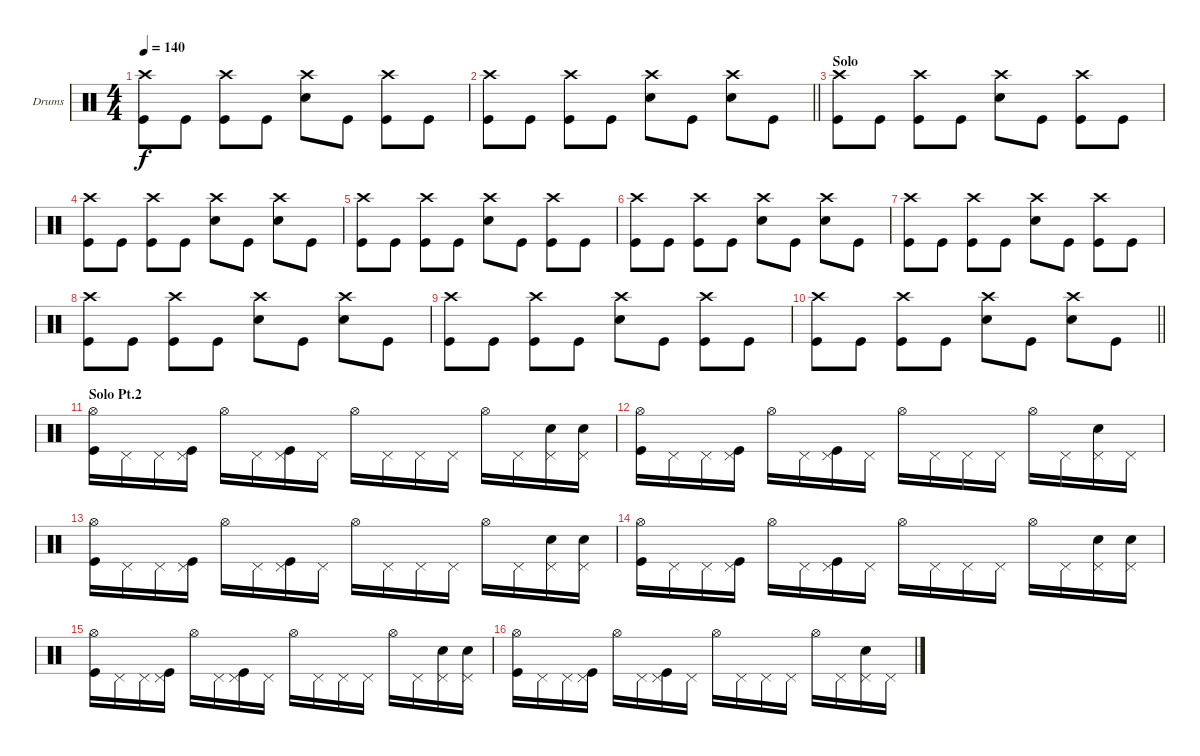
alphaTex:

\bracketExtendMode groupsimilarinstruments
\firstSystemTrackNameOrientation horizontal
\otherSystemsTrackNameOrientation horizontal
\track ("Dave McClain" "Drums") {instrument percussion}
\staff {score}
\articulation defaults
\ts (4 4)
\tempo 140
\clef neutral
\ks c
("Crash high (hit)" "Kick (hit)").8{dy f} "Kick (hit)".8 ("Crash high (hit)" "Kick (hit)").8 "Kick (hit)".8 ("Crash high (hit)" "Snare (hit) 2").8 "Kick (hit)".8 ("Crash high (hit)" "Kick (hit)").8 "Kick (hit)".8 |
\barLineRight lightlight
("Crash high (hit)" "Kick (hit)").8 "Kick (hit)".8 ("Crash high (hit)" "Kick (hit)").8 "Kick (hit)".8 ("Crash high (hit)" "Snare (hit) 2").8 "Kick (hit)".8 ("Crash high (hit)" "Snare (hit) 2").8 "Kick (hit)".8 |
\section ("" "Solo")
("Crash high (hit)" "Kick (hit)").8 "Kick (hit)".8 ("Crash high (hit)" "Kick (hit)").8 "Kick (hit)".8 ("Crash high (hit)" "Snare (hit) 2").8 "Kick (hit)".8 ("Crash high (hit)" "Kick (hit)").8 "Kick (hit)".8 |
("Crash high (hit)" "Kick (hit)").8 "Kick (hit)".8 ("Crash high (hit)" "Kick (hit)").8 "Kick (hit)".8 ("Crash high (hit)" "Snare (hit) 2").8 "Kick (hit)".8 ("Crash high (hit)" "Snare (hit) 2").8 "Kick (hit)".8 |
("Crash high (hit)" "Kick (hit)").8 "Kick (hit)".8 ("Crash high (hit)" "Kick (hit)").8 "Kick (hit)".8 ("Crash high (hit)" "Snare (hit) 2").8 "Kick (hit)".8 ("Crash high (hit)" "Kick (hit)").8 "Kick (hit)".8 |
("Crash high (hit)" "Kick (hit)").8 "Kick (hit)".8 ("Crash high (hit)" "Kick (hit)").8 "Kick (hit)".8 ("Crash high (hit)" "Snare (hit) 2").8 "Kick (hit)".8 ("Crash high (hit)" "Snare (hit) 2").8 "Kick (hit)".8 |
("Crash high (hit)" "Kick (hit)").8 "Kick (hit)".8 ("Crash high (hit)" "Kick (hit)").8 "Kick (hit)".8 ("Crash high (hit)" "Snare (hit) 2").8 "Kick (hit)".8 ("Crash high (hit)" "Kick (hit)").8 "Kick (hit)".8 |
("Crash high (hit)" "Kick (hit)").8 "Kick (hit)".8 ("Crash high (hit)" "Kick (hit)").8 "Kick (hit)".8 ("Crash high (hit)" "Snare (hit) 2").8 "Kick (hit)".8 ("Crash high (hit)" "Snare (hit) 2").8 "Kick (hit)".8 |
("Crash high (hit)" "Kick (hit)").8 "Kick (hit)".8 ("Crash high (hit)" "Kick (hit)").8 "Kick (hit)".8 ("Crash high (hit)" "Snare (hit) 2").8 "Kick (hit)".8 ("Crash high (hit)" "Kick (hit)").8 "Kick (hit)".8 |
\barLineRight lightlight
("Crash high (hit)" "Kick (hit)").8 "Kick (hit)".8 ("Crash high (hit)" "Kick (hit)").8 "Kick (hit)".8 ("Crash high (hit)" "Snare (hit) 2").8 "Kick (hit)".8 ("Crash high (hit)" "Snare (hit) 2").8 "Kick (hit)".8 |
\section ("" "Solo Pt.2")
("Hi-Hat (open)" "Kick (hit)").16 "Pedal Hi-Hat (hit)".16 "Pedal Hi-Hat (hit)".16 ("Pedal Hi-Hat (hit)" "Kick (hit)").16 "Hi-Hat (open)".16 "Pedal Hi-Hat (hit)".16 ("Pedal Hi-Hat (hit)" "Kick (hit)").16 "Pedal Hi-Hat (hit)".16 "Hi-Hat (open)".16 "Pedal Hi-Hat (hit)".16 "Pedal Hi-Hat (hit)".16 "Pedal Hi-Hat (hit)".16 "Hi-Hat (open)".16 "Pedal Hi-Hat (hit)".16 ("Pedal Hi-Hat (hit)" "Snare (hit) 2").16 ("Pedal Hi-Hat (hit)" "Snare (hit) 2").16 |
("Hi-Hat (open)" "Kick (hit)").16 "Pedal Hi-Hat (hit)".16 "Pedal Hi-Hat (hit)".16 ("Pedal Hi-Hat (hit)" "Kick (hit)").16 "Hi-Hat (open)".16 "Pedal Hi-Hat (hit)".16 ("Pedal Hi-Hat (hit)" "Kick (hit)").16 "Pedal Hi-Hat (hit)".16 "Hi-Hat (open)".16 "Pedal Hi-Hat (hit)".16 "Pedal Hi-Hat (hit)".16 "Pedal Hi-Hat (hit)".16 "Hi-Hat (open)".16 "Pedal Hi-Hat (hit)".16 ("Pedal Hi-Hat (hit)" "Snare (hit) 2").16 "Pedal Hi-Hat (hit)".16 |
("Hi-Hat (open)" "Kick (hit)").16 "Pedal Hi-Hat (hit)".16 "Pedal Hi-Hat (hit)".16 ("Pedal Hi-Hat (hit)" "Kick (hit)").16 "Hi-Hat (open)".16 "Pedal Hi-Hat (hit)".16 ("Pedal Hi-Hat (hit)" "Kick (hit)").16 "Pedal Hi-Hat (hit)".16 "Hi-Hat (open)".16 "Pedal Hi-Hat (hit)".16 "Pedal Hi-Hat (hit)".16 "Pedal Hi-Hat (hit)".16 "Hi-Hat (open)".16 "Pedal Hi-Hat (hit)".16 ("Pedal Hi-Hat (hit)" "Snare (hit) 2").16 ("Pedal Hi-Hat (hit)" "Snare (hit) 2").16 |
("Hi-Hat (open)" "Kick (hit)").16 "Pedal Hi-Hat (hit)".16 "Pedal Hi-Hat (hit)".16 ("Pedal Hi-Hat (hit)" "Kick (hit)").16 "Hi-Hat (open)".16 "Pedal Hi-Hat (hit)".16 ("Pedal Hi-Hat (hit)" "Kick (hit)").16 "Pedal Hi-Hat (hit)".16 "Hi-Hat (open)".16 "Pedal Hi-Hat (hit)".16 "Pedal Hi-Hat (hit)".16 "Pedal Hi-Hat (hit)".16 "Hi-Hat (open)".16 "Pedal Hi-Hat (hit)".16 ("Pedal Hi-Hat (hit)" "Snare (hit) 2").16 ("Pedal Hi-Hat (hit)" "Snare (hit) 2").16 |
("Hi-Hat (open)" "Kick (hit)").16 "Pedal Hi-Hat (hit)".16 "Pedal Hi-Hat (hit)".16 ("Pedal Hi-Hat (hit)" "Kick (hit)").16 "Hi-Hat (open)".16 "Pedal Hi-Hat (hit)".16 ("Pedal Hi-Hat (hit)" "Kick (hit)").16 "Pedal Hi-Hat (hit)".16 "Hi-Hat (open)".16 "Pedal Hi-Hat (hit)".16 "Pedal Hi-Hat (hit)".16 "Pedal Hi-Hat (hit)".16 "Hi-Hat (open)".16 "Pedal Hi-Hat (hit)".16 ("Pedal Hi-Hat (hit)" "Snare (hit) 2").16 ("Pedal Hi-Hat (hit)" "Snare (hit) 2").16 |
("Hi-Hat (open)" "Kick (hit)").16 "Pedal Hi-Hat (hit)".16 "Pedal Hi-Hat (hit)".16 ("Pedal Hi-Hat (hit)" "Kick (hit)").16 "Hi-Hat (open)".16 "Pedal Hi-Hat (hit)".16 ("Pedal Hi-Hat (hit)" "Kick (hit)").16 "Pedal Hi-Hat (hit)".16 "Hi-Hat (open)".16 "Pedal Hi-Hat (hit)".16 "Pedal Hi-Hat (hit)".16 "Pedal Hi-Hat (hit)".16 "Hi-Hat (open)".16 "Pedal Hi-Hat (hit)".16 ("Pedal Hi-Hat (hit)" "Snare (hit) 2").16 "Pedal Hi-Hat (hit)".16
